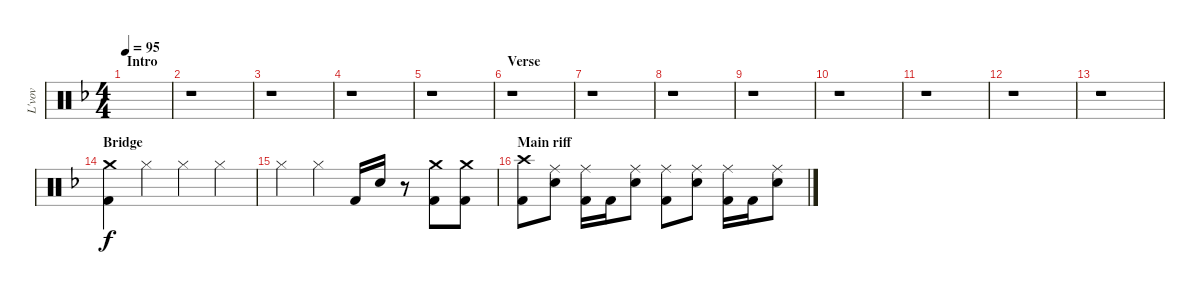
\track ("L'vov" "L'vov") {instrument percussion}
\staff {score}
\articulation defaults
\ts (4 4)
\section ("" "Intro ")
\tempo 95
\clef neutral
\ks f
|
r.1 |
r.1 |
r.1 |
r.1 |
\section ("" "Verse")
r.1 |
r.1 |
r.1 |
r.1 |
r.1 |
r.1 |
r.1 |
r.1 |
\section ("" "Bridge")
("Kick (hit) 2" "Crash medium (hit)").4 "Hi-Hat (closed)".4 "Hi-Hat (closed)".4 "Hi-Hat (closed)".4 |
"Hi-Hat (closed)".4 "Hi-Hat (closed)".4 "Kick (hit) 2".16 "Snare (hit) 2".16 r.8 ("Kick (hit) 2" "Crash medium (hit)").8 ("Kick (hit) 2" "Crash medium (hit)").8 |
\section ("" "Main riff")
("Kick (hit) 2" "Crash high (hit)").8 ("Snare (hit) 2" "Ride (middle)").8 ("Kick (hit) 2" "Ride (middle)").16 "Kick (hit) 2".16 ("Snare (hit) 2" "Ride (middle)").8 ("Kick (hit) 2" "Ride (middle)").8 ("Snare (hit) 2" "Ride (middle)").8 ("Kick (hit) 2" "Ride (middle)").16 "Kick (hit) 2".16 ("Snare (hit) 2" "Ride (middle)").8
